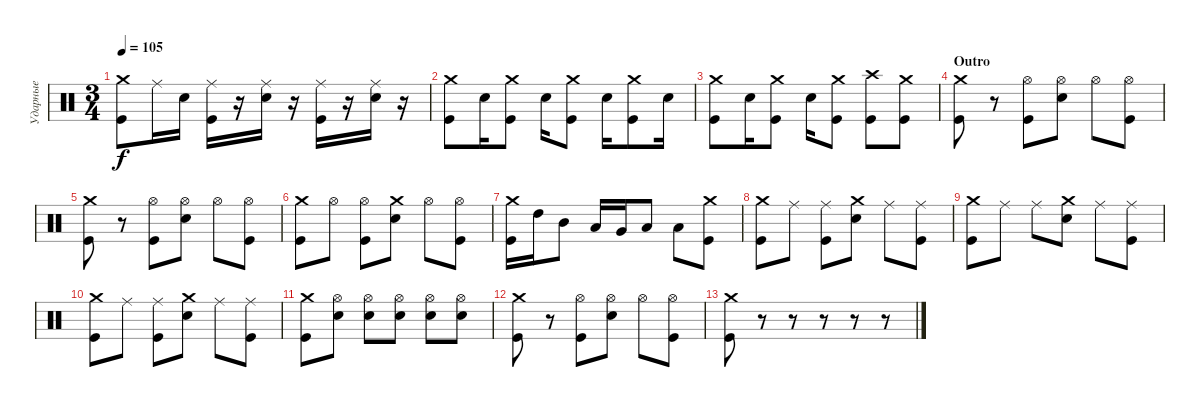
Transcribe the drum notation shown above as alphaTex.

\track ("Ударные" "Ударные") {instrument percussion}
\staff {score}
\articulation defaults
\ts (3 4)
\tempo 105
\clef neutral
\ks c
("Crash medium (hit)" "Kick (hit)").8{dy f} "Ride (middle)".16 "Electric Snare (hit)".16 ("Ride (middle)" "Kick (hit)").16 r.16 ("Ride (middle)" "Electric Snare (hit)").16 r.16 ("Ride (middle)" "Kick (hit)").16 r.16 ("Ride (middle)" "Electric Snare (hit)").16 r.16 |
("Crash medium (hit)" "Kick (hit)").8 "Electric Snare (hit)".16 ("Crash medium (hit)" "Kick (hit)").8 "Electric Snare (hit)".16 ("Crash medium (hit)" "Kick (hit)").8 "Electric Snare (hit)".16 ("Crash medium (hit)" "Kick (hit)").8 "Electric Snare (hit)".16 |
("Crash medium (hit)" "Kick (hit)").8 "Electric Snare (hit)".16 ("Crash medium (hit)" "Kick (hit)").8 "Electric Snare (hit)".16 ("Crash medium (hit)" "Kick (hit)").8 ("Crash high (hit)" "Kick (hit)").8 ("Crash medium (hit)" "Kick (hit)").8 |
\section ("" "Outro")
("Crash medium (hit)" "Kick (hit)").8 r.8 ("Hi-Hat (open)" "Kick (hit)").8 ("Hi-Hat (open)" "Electric Snare (hit)").8 "Hi-Hat (open)".8 ("Hi-Hat (open)" "Kick (hit)").8 |
("Crash medium (hit)" "Kick (hit)").8 r.8 ("Hi-Hat (open)" "Kick (hit)").8 ("Hi-Hat (open)" "Electric Snare (hit)").8 "Hi-Hat (open)".8 ("Hi-Hat (open)" "Kick (hit)").8 |
("Crash medium (hit)" "Kick (hit)").8 "Hi-Hat (open)".8 ("Hi-Hat (open)" "Kick (hit)").8 ("Crash medium (hit)" "Electric Snare (hit)").8 "Hi-Hat (open)".8 ("Hi-Hat (open)" "Kick (hit)").8 |
("Crash medium (hit)" "Kick (hit)").16 "High Tom (hit)".16 "Mid Tom (hit)".8 "Low Tom (hit)".16 "Very Low Tom (hit)".16 "Low Floor Tom (hit)".8 "Low Floor Tom (hit)".8 ("Crash medium (hit)" "Kick (hit)").8 |
("Crash medium (hit)" "Kick (hit)").8 "Ride (middle)".8 ("Ride (middle)" "Kick (hit)").8 ("Crash medium (hit)" "Electric Snare (hit)").8 "Ride (middle)".8 ("Ride (middle)" "Kick (hit)").8 |
("Crash medium (hit)" "Kick (hit)").8 "Ride (middle)".8 "Ride (middle)".8 ("Crash medium (hit)" "Electric Snare (hit)").8 "Ride (middle)".8 ("Ride (middle)" "Kick (hit)").8 |
("Crash medium (hit)" "Kick (hit)").8 "Ride (middle)".8 ("Ride (middle)" "Kick (hit)").8 ("Crash medium (hit)" "Electric Snare (hit)").8 "Ride (middle)".8 ("Ride (middle)" "Kick (hit)").8 |
("Crash medium (hit)" "Kick (hit)").8 ("Hi-Hat (open)" "Electric Snare (hit)").8 ("Hi-Hat (open)" "Electric Snare (hit)").8 ("Hi-Hat (open)" "Electric Snare (hit)").8 ("Hi-Hat (open)" "Electric Snare (hit)").8 ("Hi-Hat (open)" "Electric Snare (hit)").8 |
("Crash medium (hit)" "Kick (hit)").8 r.8 ("Hi-Hat (open)" "Kick (hit)").8 ("Hi-Hat (open)" "Electric Snare (hit)").8 "Hi-Hat (open)".8 ("Hi-Hat (open)" "Kick (hit)").8 |
("Crash medium (hit)" "Kick (hit)").8 r.8 r.8 r.8 r.8 r.8
